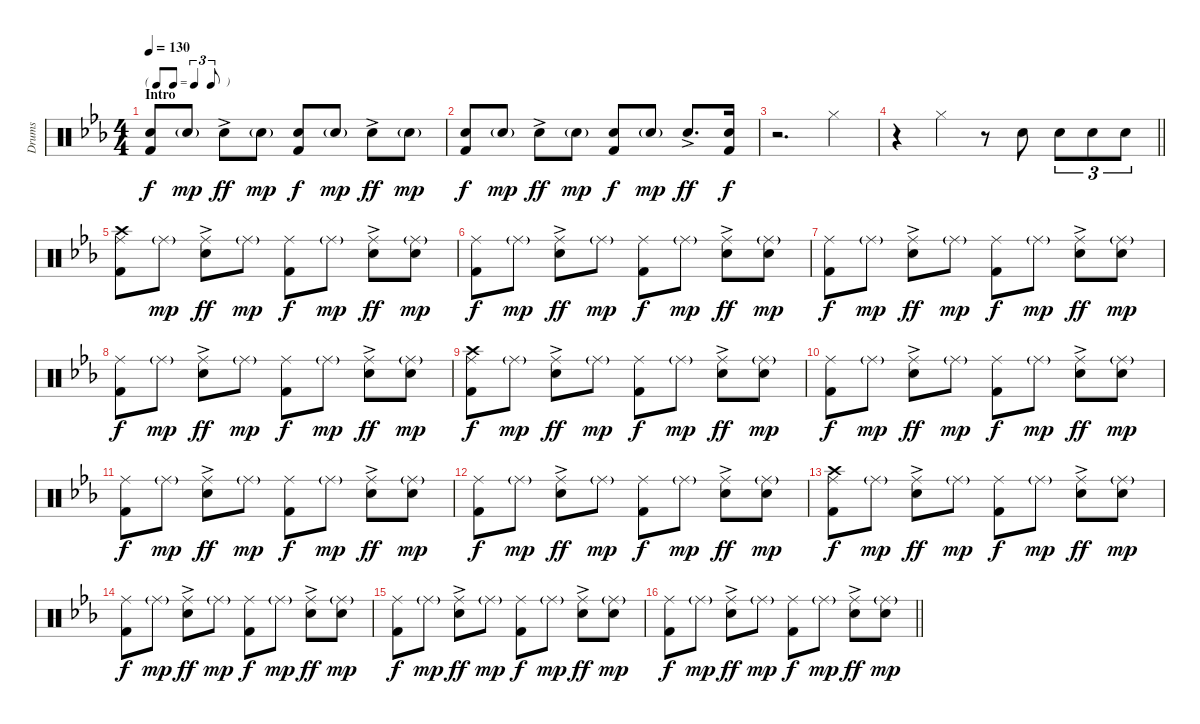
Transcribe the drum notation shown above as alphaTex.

\track ("Drums" "Drums") {instrument percussion}
\staff {score}
\articulation defaults
\ts (4 4)
\tf triplet8th
\section ("" "Intro")
\tempo 130
\clef neutral
\ks eb
("Electric Snare (hit)" "Kick (hit) 2").8{dy f} "Electric Snare (hit)"{g}.8{dy mp} "Electric Snare (hit)"{ac}.8{dy ff} "Electric Snare (hit)"{g}.8{dy mp} ("Electric Snare (hit)" "Kick (hit) 2").8{dy f} "Electric Snare (hit)"{g}.8{dy mp} "Electric Snare (hit)"{ac}.8{dy ff} "Electric Snare (hit)"{g}.8{dy mp} |
("Electric Snare (hit)" "Kick (hit) 2").8{dy f} "Electric Snare (hit)"{g}.8{dy mp} "Electric Snare (hit)"{ac}.8{dy ff} "Electric Snare (hit)"{g}.8{dy mp} ("Electric Snare (hit)" "Kick (hit) 2").8{dy f} "Electric Snare (hit)"{g}.8{dy mp} "Electric Snare (hit)"{ac}.8{d dy ff} ("Electric Snare (hit)" "Kick (hit) 2").16{dy f} |
r.2{d} "Hi-Hat (closed)".4 |
\barLineRight lightlight
r.4 "Hi-Hat (closed)".4 r.8 "Electric Snare (hit)".8 "Electric Snare (hit)".8{tu (3 2)} "Electric Snare (hit)".8{tu (3 2)} "Electric Snare (hit)".8{tu (3 2)} |
("Ride (middle)" "Kick (hit) 2" "Crash high (hit)").8 "Ride (middle)"{g}.8{dy mp} ("Ride (middle)" "Electric Snare (hit)"{ac}).8{dy ff} "Ride (middle)"{g}.8{dy mp} ("Ride (middle)" "Kick (hit) 2").8{dy f} "Ride (middle)"{g}.8{dy mp} ("Ride (middle)" "Electric Snare (hit)"{ac}).8{dy ff} ("Ride (middle)"{g} "Electric Snare (hit)").8{dy mp} |
("Ride (middle)" "Kick (hit) 2").8{dy f} "Ride (middle)"{g}.8{dy mp} ("Ride (middle)" "Electric Snare (hit)"{ac}).8{dy ff} "Ride (middle)"{g}.8{dy mp} ("Ride (middle)" "Kick (hit) 2").8{dy f} "Ride (middle)"{g}.8{dy mp} ("Ride (middle)" "Electric Snare (hit)"{ac}).8{dy ff} ("Ride (middle)"{g} "Electric Snare (hit)").8{dy mp} |
("Ride (middle)" "Kick (hit) 2").8{dy f} "Ride (middle)"{g}.8{dy mp} ("Ride (middle)" "Electric Snare (hit)"{ac}).8{dy ff} "Ride (middle)"{g}.8{dy mp} ("Ride (middle)" "Kick (hit) 2").8{dy f} "Ride (middle)"{g}.8{dy mp} ("Ride (middle)" "Electric Snare (hit)"{ac}).8{dy ff} ("Ride (middle)"{g} "Electric Snare (hit)").8{dy mp} |
("Ride (middle)" "Kick (hit) 2").8{dy f} "Ride (middle)"{g}.8{dy mp} ("Ride (middle)" "Electric Snare (hit)"{ac}).8{dy ff} "Ride (middle)"{g}.8{dy mp} ("Ride (middle)" "Kick (hit) 2").8{dy f} "Ride (middle)"{g}.8{dy mp} ("Ride (middle)" "Electric Snare (hit)"{ac}).8{dy ff} ("Ride (middle)"{g} "Electric Snare (hit)").8{dy mp} |
("Ride (middle)" "Kick (hit) 2" "Crash high (hit)").8{dy f} "Ride (middle)"{g}.8{dy mp} ("Ride (middle)" "Electric Snare (hit)"{ac}).8{dy ff} "Ride (middle)"{g}.8{dy mp} ("Ride (middle)" "Kick (hit) 2").8{dy f} "Ride (middle)"{g}.8{dy mp} ("Ride (middle)" "Electric Snare (hit)"{ac}).8{dy ff} ("Ride (middle)"{g} "Electric Snare (hit)").8{dy mp} |
("Ride (middle)" "Kick (hit) 2").8{dy f} "Ride (middle)"{g}.8{dy mp} ("Ride (middle)" "Electric Snare (hit)"{ac}).8{dy ff} "Ride (middle)"{g}.8{dy mp} ("Ride (middle)" "Kick (hit) 2").8{dy f} "Ride (middle)"{g}.8{dy mp} ("Ride (middle)" "Electric Snare (hit)"{ac}).8{dy ff} ("Ride (middle)"{g} "Electric Snare (hit)").8{dy mp} |
("Ride (middle)" "Kick (hit) 2").8{dy f} "Ride (middle)"{g}.8{dy mp} ("Ride (middle)" "Electric Snare (hit)"{ac}).8{dy ff} "Ride (middle)"{g}.8{dy mp} ("Ride (middle)" "Kick (hit) 2").8{dy f} "Ride (middle)"{g}.8{dy mp} ("Ride (middle)" "Electric Snare (hit)"{ac}).8{dy ff} ("Ride (middle)"{g} "Electric Snare (hit)").8{dy mp} |
("Ride (middle)" "Kick (hit) 2").8{dy f} "Ride (middle)"{g}.8{dy mp} ("Ride (middle)" "Electric Snare (hit)"{ac}).8{dy ff} "Ride (middle)"{g}.8{dy mp} ("Ride (middle)" "Kick (hit) 2").8{dy f} "Ride (middle)"{g}.8{dy mp} ("Ride (middle)" "Electric Snare (hit)"{ac}).8{dy ff} ("Ride (middle)"{g} "Electric Snare (hit)").8{dy mp} |
("Ride (middle)" "Kick (hit) 2" "Crash high (hit)").8{dy f} "Ride (middle)"{g}.8{dy mp} ("Ride (middle)" "Electric Snare (hit)"{ac}).8{dy ff} "Ride (middle)"{g}.8{dy mp} ("Ride (middle)" "Kick (hit) 2").8{dy f} "Ride (middle)"{g}.8{dy mp} ("Ride (middle)" "Electric Snare (hit)"{ac}).8{dy ff} ("Ride (middle)"{g} "Electric Snare (hit)").8{dy mp} |
("Ride (middle)" "Kick (hit) 2").8{dy f} "Ride (middle)"{g}.8{dy mp} ("Ride (middle)" "Electric Snare (hit)"{ac}).8{dy ff} "Ride (middle)"{g}.8{dy mp} ("Ride (middle)" "Kick (hit) 2").8{dy f} "Ride (middle)"{g}.8{dy mp} ("Ride (middle)" "Electric Snare (hit)"{ac}).8{dy ff} ("Ride (middle)"{g} "Electric Snare (hit)").8{dy mp} |
("Ride (middle)" "Kick (hit) 2").8{dy f} "Ride (middle)"{g}.8{dy mp} ("Ride (middle)" "Electric Snare (hit)"{ac}).8{dy ff} "Ride (middle)"{g}.8{dy mp} ("Ride (middle)" "Kick (hit) 2").8{dy f} "Ride (middle)"{g}.8{dy mp} ("Ride (middle)" "Electric Snare (hit)"{ac}).8{dy ff} ("Ride (middle)"{g} "Electric Snare (hit)").8{dy mp} |
\barLineRight lightlight
("Ride (middle)" "Kick (hit) 2").8{dy f} "Ride (middle)"{g}.8{dy mp} ("Ride (middle)" "Electric Snare (hit)"{ac}).8{dy ff} "Ride (middle)"{g}.8{dy mp} ("Ride (middle)" "Kick (hit) 2").8{dy f} "Ride (middle)"{g}.8{dy mp} ("Ride (middle)" "Electric Snare (hit)"{ac}).8{dy ff} ("Ride (middle)"{g} "Electric Snare (hit)").8{dy mp}
